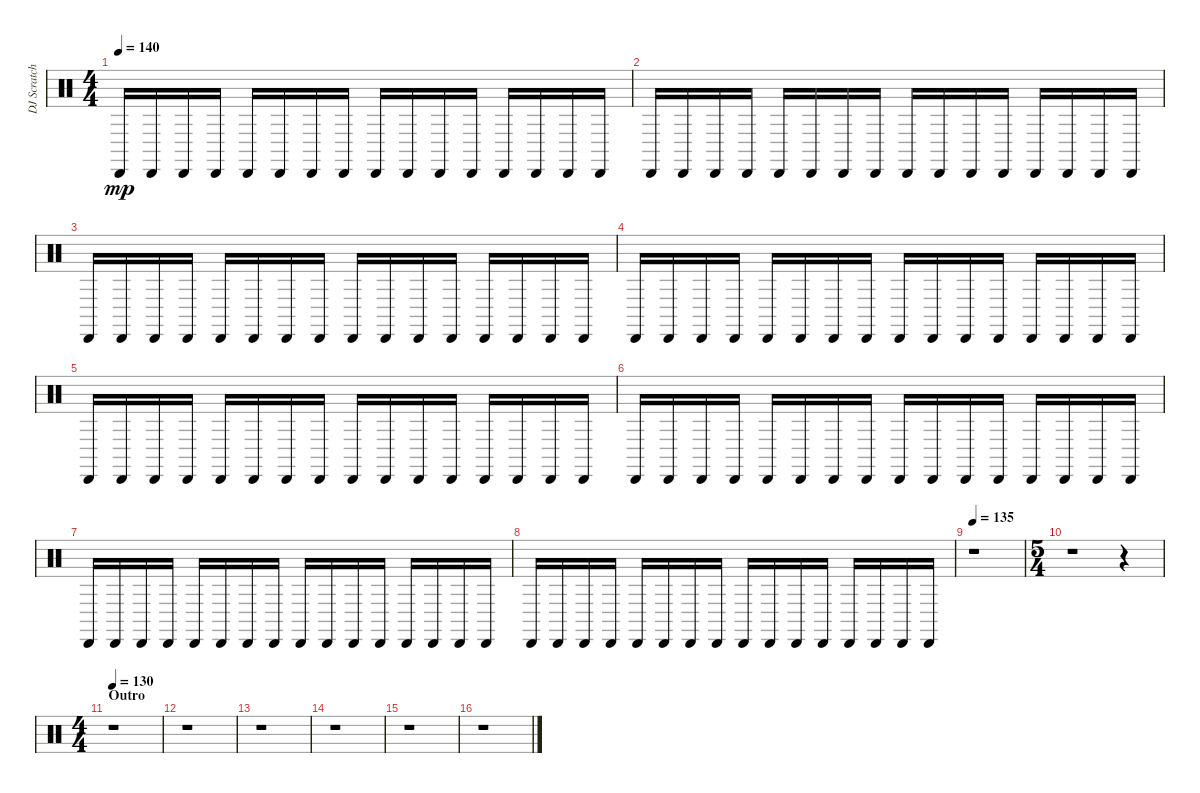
\track ("DJ Scratches/ Percussion" "DJ Scratch") {instrument percussion}
\staff {score}
\articulation defaults
\ts (4 4)
\tempo 140
\clef neutral
\ks c "Cabasa (hit)".16{dy mp} "Cabasa (hit)".16 "Cabasa (hit)".16 "Cabasa (hit)".16 "Cabasa (hit)".16 "Cabasa (hit)".16 "Cabasa (hit)".16 "Cabasa (hit)".16 "Cabasa (hit)".16 "Cabasa (hit)".16 "Cabasa (hit)".16 "Cabasa (hit)".16 "Cabasa (hit)".16 "Cabasa (hit)".16 "Cabasa (hit)".16 "Cabasa (hit)".16
|
"Cabasa (hit)".16 "Cabasa (hit)".16 "Cabasa (hit)".16 "Cabasa (hit)".16 "Cabasa (hit)".16 "Cabasa (hit)".16 "Cabasa (hit)".16 "Cabasa (hit)".16 "Cabasa (hit)".16 "Cabasa (hit)".16 "Cabasa (hit)".16 "Cabasa (hit)".16 "Cabasa (hit)".16 "Cabasa (hit)".16 "Cabasa (hit)".16 "Cabasa (hit)".16 |
"Cabasa (hit)".16 "Cabasa (hit)".16 "Cabasa (hit)".16 "Cabasa (hit)".16 "Cabasa (hit)".16 "Cabasa (hit)".16 "Cabasa (hit)".16 "Cabasa (hit)".16 "Cabasa (hit)".16 "Cabasa (hit)".16 "Cabasa (hit)".16 "Cabasa (hit)".16 "Cabasa (hit)".16 "Cabasa (hit)".16 "Cabasa (hit)".16 "Cabasa (hit)".16 |
"Cabasa (hit)".16 "Cabasa (hit)".16 "Cabasa (hit)".16 "Cabasa (hit)".16 "Cabasa (hit)".16 "Cabasa (hit)".16 "Cabasa (hit)".16 "Cabasa (hit)".16 "Cabasa (hit)".16 "Cabasa (hit)".16 "Cabasa (hit)".16 "Cabasa (hit)".16 "Cabasa (hit)".16 "Cabasa (hit)".16 "Cabasa (hit)".16 "Cabasa (hit)".16 |
"Cabasa (hit)".16 "Cabasa (hit)".16 "Cabasa (hit)".16 "Cabasa (hit)".16 "Cabasa (hit)".16 "Cabasa (hit)".16 "Cabasa (hit)".16 "Cabasa (hit)".16 "Cabasa (hit)".16 "Cabasa (hit)".16 "Cabasa (hit)".16 "Cabasa (hit)".16 "Cabasa (hit)".16 "Cabasa (hit)".16 "Cabasa (hit)".16 "Cabasa (hit)".16 |
"Cabasa (hit)".16 "Cabasa (hit)".16 "Cabasa (hit)".16 "Cabasa (hit)".16 "Cabasa (hit)".16 "Cabasa (hit)".16 "Cabasa (hit)".16 "Cabasa (hit)".16 "Cabasa (hit)".16 "Cabasa (hit)".16 "Cabasa (hit)".16 "Cabasa (hit)".16 "Cabasa (hit)".16 "Cabasa (hit)".16 "Cabasa (hit)".16 "Cabasa (hit)".16 |
"Cabasa (hit)".16 "Cabasa (hit)".16 "Cabasa (hit)".16 "Cabasa (hit)".16 "Cabasa (hit)".16 "Cabasa (hit)".16 "Cabasa (hit)".16 "Cabasa (hit)".16 "Cabasa (hit)".16 "Cabasa (hit)".16 "Cabasa (hit)".16 "Cabasa (hit)".16 "Cabasa (hit)".16 "Cabasa (hit)".16 "Cabasa (hit)".16 "Cabasa (hit)".16 |
"Cabasa (hit)".16 "Cabasa (hit)".16 "Cabasa (hit)".16 "Cabasa (hit)".16 "Cabasa (hit)".16 "Cabasa (hit)".16 "Cabasa (hit)".16 "Cabasa (hit)".16 "Cabasa (hit)".16 "Cabasa (hit)".16 "Cabasa (hit)".16 "Cabasa (hit)".16 "Cabasa (hit)".16 "Cabasa (hit)".16 "Cabasa (hit)".16 "Cabasa (hit)".16 |
\tempo 135
r.1 |
\ts (5 4)
r.1 r.4 |
\ts (4 4)
\section ("" "Outro")
\tempo 130
r.1 |
r.1 |
r.1 |
r.1 |
r.1 |
r.1
